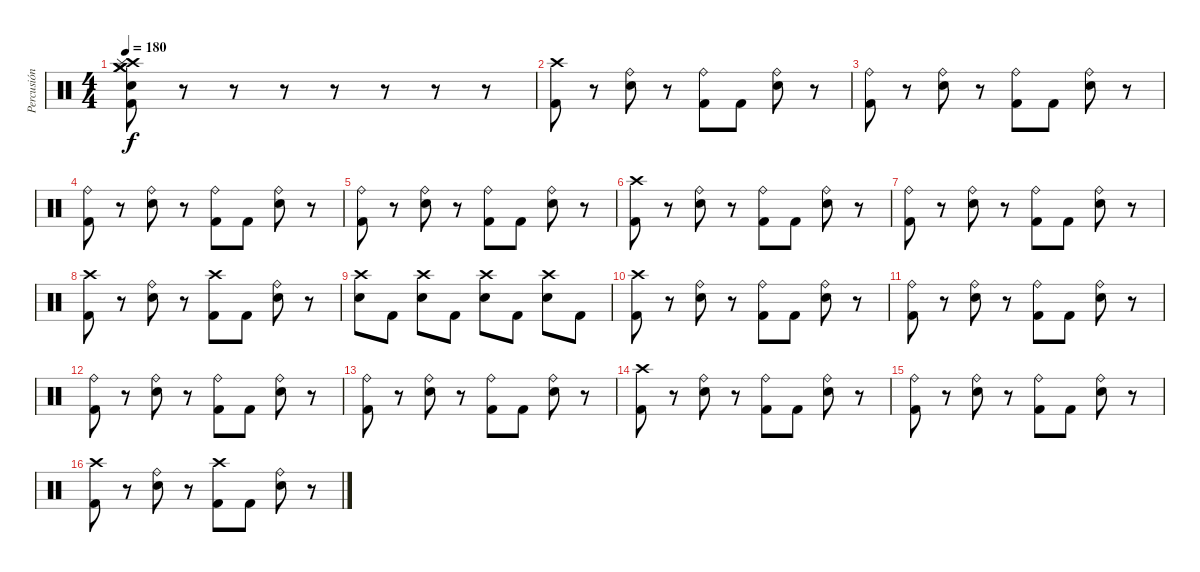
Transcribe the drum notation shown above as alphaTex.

\track ("Percusión" "Percusión") {instrument percussion}
\staff {score}
\articulation defaults
\ts (4 4)
\tempo 180
\clef neutral
\ks c
("Crash medium (hit)" "Crash medium (hit)" "Crash high (hit)" "Splash (hit)" "Kick (hit) 2" "Electric Snare (hit)").8{dy f} r.8 r.8 r.8 r.8 r.8 r.8 r.8 |
("Crash high (hit)" "Kick (hit) 2").8 r.8 ("Ride (bell)" "Electric Snare (hit)").8 r.8 ("Ride (bell)" "Kick (hit) 2").8 "Kick (hit) 2".8 ("Ride (bell)" "Electric Snare (hit)").8 r.8 |
("Ride (bell)" "Kick (hit) 2").8 r.8 ("Ride (bell)" "Electric Snare (hit)").8 r.8 ("Ride (bell)" "Kick (hit) 2").8 "Kick (hit) 2".8 ("Ride (bell)" "Electric Snare (hit)").8 r.8 |
("Ride (bell)" "Kick (hit) 2").8 r.8 ("Ride (bell)" "Electric Snare (hit)").8 r.8 ("Ride (bell)" "Kick (hit) 2").8 "Kick (hit) 2".8 ("Ride (bell)" "Electric Snare (hit)").8 r.8 |
("Ride (bell)" "Kick (hit) 2").8 r.8 ("Ride (bell)" "Electric Snare (hit)").8 r.8 ("Ride (bell)" "Kick (hit) 2").8 "Kick (hit) 2".8 ("Ride (bell)" "Electric Snare (hit)").8 r.8 |
("Crash high (hit)" "Kick (hit) 2").8 r.8 ("Ride (bell)" "Electric Snare (hit)").8 r.8 ("Ride (bell)" "Kick (hit) 2").8 "Kick (hit) 2".8 ("Ride (bell)" "Electric Snare (hit)").8 r.8 |
("Ride (bell)" "Kick (hit) 2").8 r.8 ("Ride (bell)" "Electric Snare (hit)").8 r.8 ("Ride (bell)" "Kick (hit) 2").8 "Kick (hit) 2".8 ("Ride (bell)" "Electric Snare (hit)").8 r.8 |
("Crash high (hit)" "Kick (hit) 2").8 r.8 ("Ride (bell)" "Electric Snare (hit)").8 r.8 ("Crash high (hit)" "Kick (hit) 2").8 "Kick (hit) 2".8 ("Ride (bell)" "Electric Snare (hit)").8 r.8 |
("Crash high (hit)" "Electric Snare (hit)").8 "Kick (hit) 2".8 ("Crash high (hit)" "Electric Snare (hit)").8 "Kick (hit) 2".8 ("Crash high (hit)" "Electric Snare (hit)").8 "Kick (hit) 2".8 ("Crash high (hit)" "Electric Snare (hit)").8 "Kick (hit) 2".8 |
("Crash high (hit)" "Kick (hit) 2").8 r.8 ("Ride (bell)" "Electric Snare (hit)").8 r.8 ("Ride (bell)" "Kick (hit) 2").8 "Kick (hit) 2".8 ("Ride (bell)" "Electric Snare (hit)").8 r.8 |
("Ride (bell)" "Kick (hit) 2").8 r.8 ("Ride (bell)" "Electric Snare (hit)").8 r.8 ("Ride (bell)" "Kick (hit) 2").8 "Kick (hit) 2".8 ("Ride (bell)" "Electric Snare (hit)").8 r.8 |
("Ride (bell)" "Kick (hit) 2").8 r.8 ("Ride (bell)" "Electric Snare (hit)").8 r.8 ("Ride (bell)" "Kick (hit) 2").8 "Kick (hit) 2".8 ("Ride (bell)" "Electric Snare (hit)").8 r.8 |
("Ride (bell)" "Kick (hit) 2").8 r.8 ("Ride (bell)" "Electric Snare (hit)").8 r.8 ("Ride (bell)" "Kick (hit) 2").8 "Kick (hit) 2".8 ("Ride (bell)" "Electric Snare (hit)").8 r.8 |
("Crash high (hit)" "Kick (hit) 2").8 r.8 ("Ride (bell)" "Electric Snare (hit)").8 r.8 ("Ride (bell)" "Kick (hit) 2").8 "Kick (hit) 2".8 ("Ride (bell)" "Electric Snare (hit)").8 r.8 |
("Ride (bell)" "Kick (hit) 2").8 r.8 ("Ride (bell)" "Electric Snare (hit)").8 r.8 ("Ride (bell)" "Kick (hit) 2").8 "Kick (hit) 2".8 ("Ride (bell)" "Electric Snare (hit)").8 r.8 |
("Crash high (hit)" "Kick (hit) 2").8 r.8 ("Ride (bell)" "Electric Snare (hit)").8 r.8 ("Crash high (hit)" "Kick (hit) 2").8 "Kick (hit) 2".8 ("Ride (bell)" "Electric Snare (hit)").8 r.8
